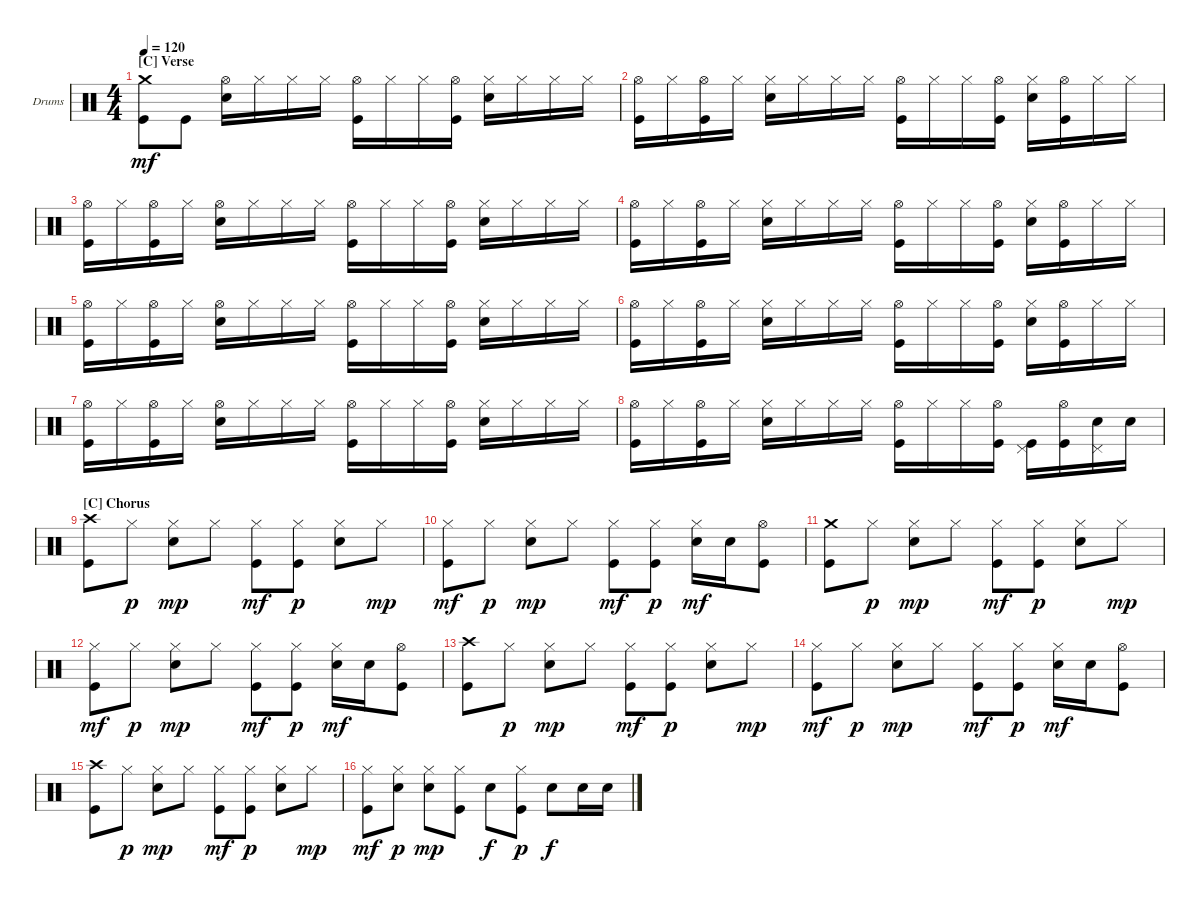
\defaultSystemsLayout 4
\bracketExtendMode groupsimilarinstruments
\firstSystemTrackNameOrientation horizontal
\otherSystemsTrackNameOrientation horizontal
\track ("Drumkit" "Drums") {instrument percussion}
\staff {score}
\articulation defaults
\ts (4 4)
\section ("C" "Verse")
\tempo 120
\clef neutral
\scale
0.333333
\ks c
("Crash medium (hit)" "Kick (hit)").8{dy mf} "Kick (hit)".8 ("Hi-Hat (open)" "Snare (hit) 2").16 "Hi-Hat (closed)".16 "Hi-Hat (closed)".16 "Hi-Hat (closed)".16 ("Hi-Hat (open)" "Kick (hit)").16 "Hi-Hat (closed)".16 "Hi-Hat (closed)".16 ("Hi-Hat (open)" "Kick (hit)").16 ("Hi-Hat (closed)" "Snare (hit) 2").16 "Hi-Hat (closed)".16 "Hi-Hat (closed)".16 "Hi-Hat (closed)".16 |
\scale
0.333333 ("Hi-Hat (open)" "Kick (hit)").16 "Hi-Hat (closed)".16 ("Hi-Hat (open)" "Kick (hit)").16 "Hi-Hat (closed)".16 ("Hi-Hat (closed)" "Snare (hit) 2").16 "Hi-Hat (closed)".16 "Hi-Hat (closed)".16 "Hi-Hat (closed)".16 ("Hi-Hat (open)" "Kick (hit)").16 "Hi-Hat (closed)".16 "Hi-Hat (closed)".16 ("Hi-Hat (open)" "Kick (hit)").16 ("Hi-Hat (closed)" "Snare (hit) 2").16 ("Hi-Hat (open)" "Kick (hit)").16 "Hi-Hat (closed)".16 "Hi-Hat (closed)".16 |
\scale
0.333333 ("Hi-Hat (open)" "Kick (hit)").16 "Hi-Hat (closed)".16 ("Hi-Hat (open)" "Kick (hit)").16 "Hi-Hat (closed)".16 ("Hi-Hat (open)" "Snare (hit) 2").16 "Hi-Hat (closed)".16 "Hi-Hat (closed)".16 "Hi-Hat (closed)".16 ("Hi-Hat (open)" "Kick (hit)").16 "Hi-Hat (closed)".16 "Hi-Hat (closed)".16 ("Hi-Hat (open)" "Kick (hit)").16 ("Hi-Hat (closed)" "Snare (hit) 2").16 "Hi-Hat (closed)".16 "Hi-Hat (closed)".16 "Hi-Hat (closed)".16 |
\scale
0.333333 ("Hi-Hat (open)" "Kick (hit)").16 "Hi-Hat (closed)".16 ("Hi-Hat (open)" "Kick (hit)").16 "Hi-Hat (closed)".16 ("Hi-Hat (closed)" "Snare (hit) 2").16 "Hi-Hat (closed)".16 "Hi-Hat (closed)".16 "Hi-Hat (closed)".16 ("Hi-Hat (open)" "Kick (hit)").16 "Hi-Hat (closed)".16 "Hi-Hat (closed)".16 ("Hi-Hat (open)" "Kick (hit)").16 ("Hi-Hat (closed)" "Snare (hit) 2").16 ("Hi-Hat (open)" "Kick (hit)").16 "Hi-Hat (closed)".16 "Hi-Hat (closed)".16 |
\scale
0.333333 ("Hi-Hat (open)" "Kick (hit)").16 "Hi-Hat (closed)".16 ("Hi-Hat (open)" "Kick (hit)").16 "Hi-Hat (closed)".16 ("Hi-Hat (open)" "Snare (hit) 2").16 "Hi-Hat (closed)".16 "Hi-Hat (closed)".16 "Hi-Hat (closed)".16 ("Hi-Hat (open)" "Kick (hit)").16 "Hi-Hat (closed)".16 "Hi-Hat (closed)".16 ("Hi-Hat (open)" "Kick (hit)").16 ("Hi-Hat (closed)" "Snare (hit) 2").16 "Hi-Hat (closed)".16 "Hi-Hat (closed)".16 "Hi-Hat (closed)".16 |
\scale
0.333333 ("Hi-Hat (open)" "Kick (hit)").16 "Hi-Hat (closed)".16 ("Hi-Hat (open)" "Kick (hit)").16 "Hi-Hat (closed)".16 ("Hi-Hat (closed)" "Snare (hit) 2").16 "Hi-Hat (closed)".16 "Hi-Hat (closed)".16 "Hi-Hat (closed)".16 ("Hi-Hat (open)" "Kick (hit)").16 "Hi-Hat (closed)".16 "Hi-Hat (closed)".16 ("Hi-Hat (open)" "Kick (hit)").16 ("Hi-Hat (closed)" "Snare (hit) 2").16 ("Hi-Hat (open)" "Kick (hit)").16 "Hi-Hat (closed)".16 "Hi-Hat (closed)".16 |
\scale
0.333333 ("Hi-Hat (open)" "Kick (hit)").16 "Hi-Hat (closed)".16 ("Hi-Hat (open)" "Kick (hit)").16 "Hi-Hat (closed)".16 ("Hi-Hat (open)" "Snare (hit) 2").16 "Hi-Hat (closed)".16 "Hi-Hat (closed)".16 "Hi-Hat (closed)".16 ("Hi-Hat (open)" "Kick (hit)").16 "Hi-Hat (closed)".16 "Hi-Hat (closed)".16 ("Hi-Hat (open)" "Kick (hit)").16 ("Hi-Hat (closed)" "Snare (hit) 2").16 "Hi-Hat (closed)".16 "Hi-Hat (closed)".16 "Hi-Hat (closed)".16 |
\scale
0.333333 ("Hi-Hat (open)" "Kick (hit)").16 "Hi-Hat (closed)".16 ("Hi-Hat (open)" "Kick (hit)").16 "Hi-Hat (closed)".16 ("Hi-Hat (closed)" "Snare (hit) 2").16 "Hi-Hat (closed)".16 "Hi-Hat (closed)".16 "Hi-Hat (closed)".16 ("Hi-Hat (open)" "Kick (hit)").16 "Hi-Hat (closed)".16 "Hi-Hat (closed)".16 ("Hi-Hat (open)" "Kick (hit)").16 ("Pedal Hi-Hat (hit)" "Kick (hit)").16 ("Hi-Hat (open)" "Kick (hit)").16 ("Pedal Hi-Hat (hit)" "Snare (hit) 2").16 "Snare (hit) 2".16 |
\section ("C" "Chorus")
\scale
0.333333 ("Crash high (hit)" "Kick (hit)").8 "Hi-Hat (closed)".8{dy p} ("Hi-Hat (closed)" "Snare (hit) 2").8{dy mp} "Hi-Hat (closed)".8 ("Hi-Hat (closed)" "Kick (hit)").8{dy mf} ("Hi-Hat (closed)" "Kick (hit)").8{dy p} ("Hi-Hat (closed)" "Snare (hit) 2").8 "Hi-Hat (closed)".8{dy mp} |
\scale
0.333333 ("Hi-Hat (closed)" "Kick (hit)").8{dy mf} "Hi-Hat (closed)".8{dy p} ("Hi-Hat (closed)" "Snare (hit) 2").8{dy mp} "Hi-Hat (closed)".8 ("Hi-Hat (closed)" "Kick (hit)").8{dy mf} ("Hi-Hat (closed)" "Kick (hit)").8{dy p} ("Hi-Hat (closed)" "Snare (hit) 2").16{dy mf} "Snare (hit) 2".16 ("Hi-Hat (open)" "Kick (hit)").8 |
\scale
0.333333 ("Crash medium (hit)" "Kick (hit)").8 "Hi-Hat (closed)".8{dy p} ("Hi-Hat (closed)" "Snare (hit) 2").8{dy mp} "Hi-Hat (closed)".8 ("Hi-Hat (closed)" "Kick (hit)").8{dy mf} ("Hi-Hat (closed)" "Kick (hit)").8{dy p} ("Hi-Hat (closed)" "Snare (hit) 2").8 "Hi-Hat (closed)".8{dy mp} |
\scale
0.333333 ("Hi-Hat (closed)" "Kick (hit)").8{dy mf} "Hi-Hat (closed)".8{dy p} ("Hi-Hat (closed)" "Snare (hit) 2").8{dy mp} "Hi-Hat (closed)".8 ("Hi-Hat (closed)" "Kick (hit)").8{dy mf} ("Hi-Hat (closed)" "Kick (hit)").8{dy p} ("Hi-Hat (closed)" "Snare (hit) 2").16{dy mf} "Snare (hit) 2".16 ("Hi-Hat (open)" "Kick (hit)").8 |
\scale
0.333333 ("Crash high (hit)" "Kick (hit)").8 "Hi-Hat (closed)".8{dy p} ("Hi-Hat (closed)" "Snare (hit) 2").8{dy mp} "Hi-Hat (closed)".8 ("Hi-Hat (closed)" "Kick (hit)").8{dy mf} ("Hi-Hat (closed)" "Kick (hit)").8{dy p} ("Hi-Hat (closed)" "Snare (hit) 2").8 "Hi-Hat (closed)".8{dy mp} |
\scale
0.333333 ("Hi-Hat (closed)" "Kick (hit)").8{dy mf} "Hi-Hat (closed)".8{dy p} ("Hi-Hat (closed)" "Snare (hit) 2").8{dy mp} "Hi-Hat (closed)".8 ("Hi-Hat (closed)" "Kick (hit)").8{dy mf} ("Hi-Hat (closed)" "Kick (hit)").8{dy p} ("Hi-Hat (closed)" "Snare (hit) 2").16{dy mf} "Snare (hit) 2".16 ("Hi-Hat (open)" "Kick (hit)").8 |
\scale
0.333333 ("Crash high (hit)" "Kick (hit)").8 "Hi-Hat (closed)".8{dy p} ("Hi-Hat (closed)" "Snare (hit) 2").8{dy mp} "Hi-Hat (closed)".8 ("Hi-Hat (closed)" "Kick (hit)").8{dy mf} ("Hi-Hat (closed)" "Kick (hit)").8{dy p} ("Hi-Hat (closed)" "Snare (hit) 2").8 "Hi-Hat (closed)".8{dy mp} |
\scale
0.333333 ("Hi-Hat (closed)" "Kick (hit)").8{dy mf} ("Hi-Hat (closed)" "Snare (hit) 2").8{dy p} ("Hi-Hat (closed)" "Snare (hit) 2").8{dy mp} ("Hi-Hat (closed)" "Kick (hit)").8 "Snare (hit) 2".8{dy f} ("Hi-Hat (closed)" "Kick (hit)").8{dy p} "Snare (hit) 2".8{dy f} "Snare (hit) 2".16 "Snare (hit) 2".16
